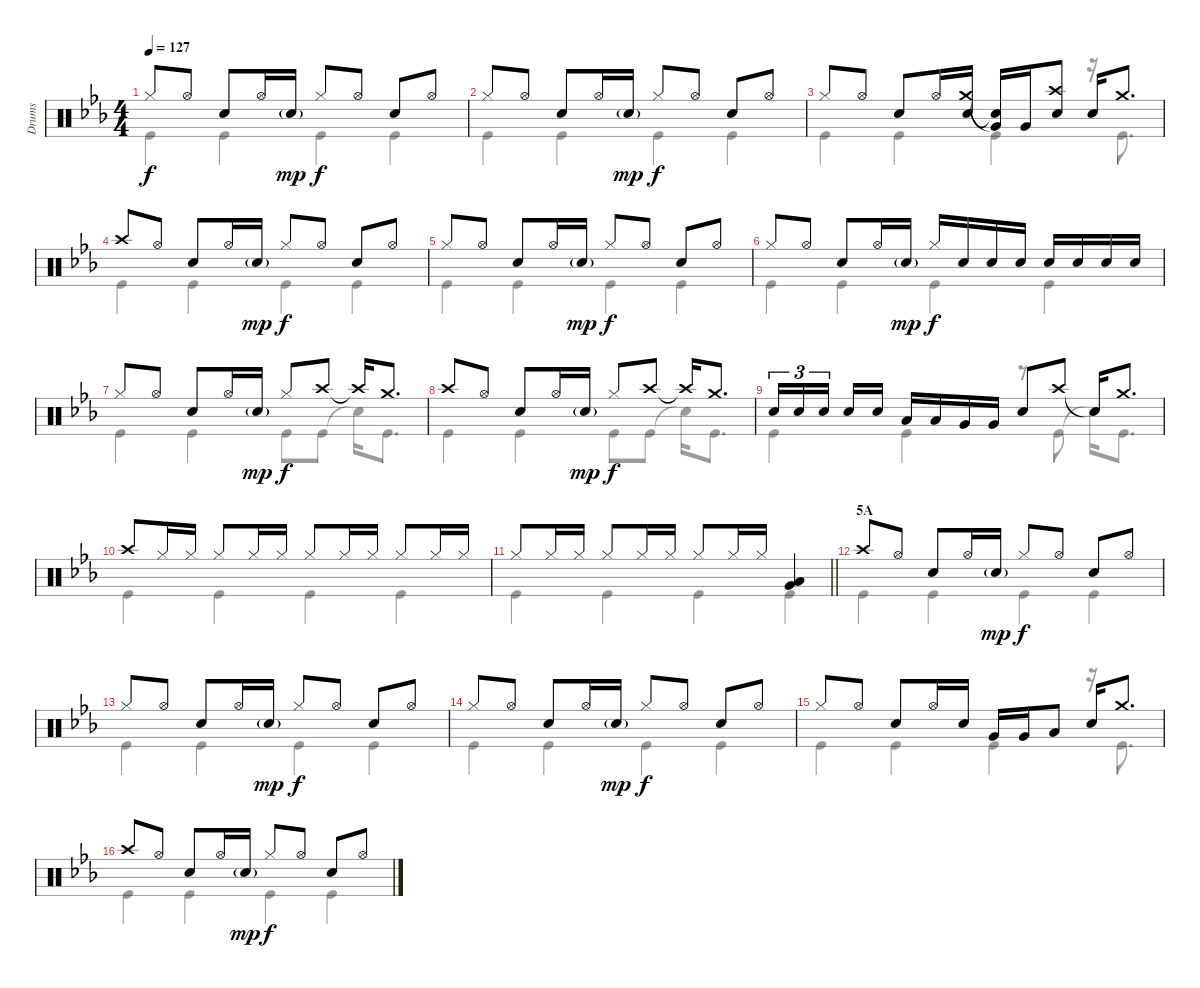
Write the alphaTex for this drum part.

\track ("Drums" "Drums") {instrument percussion}
\staff {score}
\articulation defaults
\voice
\ts (4 4)
\tempo 127
\clef neutral
\ks eb "Hi-Hat (closed)".8{dy f} "Hi-Hat (open)".8 "Snare (hit) 2".8 "Hi-Hat (open)".16 "Snare (hit) 2"{g}.16{dy mp} "Hi-Hat (closed)".8{dy f} "Hi-Hat (open)".8 "Snare (hit) 2".8 "Hi-Hat (open)".8
|
"Hi-Hat (closed)".8 "Hi-Hat (open)".8 "Snare (hit) 2".8 "Hi-Hat (open)".16 "Snare (hit) 2"{g}.16{dy mp} "Hi-Hat (closed)".8{dy f} "Hi-Hat (open)".8 "Snare (hit) 2".8 "Hi-Hat (open)".8 |
"Hi-Hat (closed)".8 "Hi-Hat (open)".8 "Snare (hit) 2".8 "Hi-Hat (open)".16 ("Crash medium (hit)" "Snare (hit) 2").16 ("Very Low Tom (hit)"{t} "Snare (hit)"{t}).16 "Very Low Tom (hit)".16 ("Crash high (hit)" "Snare (hit) 2").8 "Snare (hit) 2".16 "Crash medium (hit)".8{d} |
"Crash high (hit)".8 "Hi-Hat (open)".8 "Snare (hit) 2".8 "Hi-Hat (open)".16 "Snare (hit) 2"{g}.16{dy mp} "Hi-Hat (closed)".8{dy f} "Hi-Hat (open)".8 "Snare (hit) 2".8 "Hi-Hat (open)".8 |
"Hi-Hat (closed)".8 "Hi-Hat (open)".8 "Snare (hit) 2".8 "Hi-Hat (open)".16 "Snare (hit) 2"{g}.16{dy mp} "Hi-Hat (closed)".8{dy f} "Hi-Hat (open)".8 "Snare (hit) 2".8 "Hi-Hat (open)".8 |
"Hi-Hat (closed)".8 "Hi-Hat (open)".8 "Snare (hit) 2".8 "Hi-Hat (open)".16 "Snare (hit) 2"{g}.16{dy mp} "Hi-Hat (closed)".16{dy f} "Snare (hit) 2".16 "Snare (hit) 2".16 "Snare (hit) 2".16 "Snare (hit) 2".16 "Snare (hit) 2".16 "Snare (hit) 2".16 "Snare (hit) 2".16 |
"Hi-Hat (closed)".8 "Hi-Hat (open)".8 "Snare (hit) 2".8 "Hi-Hat (open)".16 "Snare (hit) 2"{g}.16{dy mp} "Hi-Hat (closed)".8{dy f} "Crash high (hit)".8 "Crash high (hit)"{t}.16 "Crash medium (hit)".8{d} |
"Crash high (hit)".8 "Hi-Hat (open)".8 "Snare (hit) 2".8 "Hi-Hat (open)".16 "Snare (hit) 2"{g}.16{dy mp} "Hi-Hat (closed)".8{dy f} "Crash high (hit)".8 "Crash high (hit)"{t}.16 "Crash medium (hit)".8{d} |
"Snare (hit) 2".16{tu (3 2)} "Snare (hit) 2".16{tu (3 2)} "Snare (hit) 2".16{tu (3 2) beam splitsecondary} "Snare (hit) 2".16 "Snare (hit) 2".16 "Low Tom (hit)".16 "Low Tom (hit)".16 "Very Low Tom (hit)".16 "Very Low Tom (hit)".16 "Snare (hit) 2".8 "Crash high (hit)".8 "Snare (hit)"{t}.16 "Crash medium (hit)".8{d} |
"Crash high (hit)".8 "Hi-Hat (closed)".16 "Hi-Hat (closed)".16 "Hi-Hat (closed)".8 "Hi-Hat (closed)".16 "Hi-Hat (closed)".16 "Hi-Hat (closed)".8 "Hi-Hat (closed)".16 "Hi-Hat (closed)".16 "Hi-Hat (closed)".8 "Hi-Hat (closed)".16 "Hi-Hat (closed)".16 |
\barLineRight lightlight "Hi-Hat (closed)".8 "Hi-Hat (closed)".16 "Hi-Hat (closed)".16 "Hi-Hat (closed)".8 "Hi-Hat (closed)".16 "Hi-Hat (closed)".16 "Hi-Hat (closed)".8 "Hi-Hat (closed)".16 "Hi-Hat (closed)".16
("Low Tom (hit)" "Very Low Tom (hit)").4 |
\section ("" "5A")
"Crash high (hit)".8 "Hi-Hat (open)".8 "Snare (hit) 2".8 "Hi-Hat (open)".16 "Snare (hit) 2"{g}.16{dy mp} "Hi-Hat (closed)".8{dy f} "Hi-Hat (open)".8 "Snare (hit) 2".8 "Hi-Hat (open)".8 |
"Hi-Hat (closed)".8 "Hi-Hat (open)".8 "Snare (hit) 2".8 "Hi-Hat (open)".16 "Snare (hit) 2"{g}.16{dy mp} "Hi-Hat (closed)".8{dy f} "Hi-Hat (open)".8 "Snare (hit) 2".8 "Hi-Hat (open)".8 |
"Hi-Hat (closed)".8 "Hi-Hat (open)".8 "Snare (hit) 2".8 "Hi-Hat (open)".16 "Snare (hit) 2"{g}.16{dy mp} "Hi-Hat (closed)".8{dy f} "Hi-Hat (open)".8 "Snare (hit) 2".8 "Hi-Hat (open)".8 |
"Hi-Hat (closed)".8 "Hi-Hat (open)".8 "Snare (hit) 2".8 "Hi-Hat (open)".16 "Snare (hit) 2".16 "Very Low Tom (hit)".16 "Very Low Tom (hit)".16 "Low Tom (hit)".8 "Snare (hit) 2".16 "Crash medium (hit)".8{d} |
"Crash high (hit)".8 "Hi-Hat (open)".8 "Snare (hit) 2".8 "Hi-Hat (open)".16 "Snare (hit) 2"{g}.16{dy mp} "Hi-Hat (closed)".8{dy f} "Hi-Hat (open)".8 "Snare (hit) 2".8 "Hi-Hat (open)".8
\voice
\clef neutral
\ottava regular
\simile none
\ks eb "Kick (hit)".4{dy f} "Kick (hit)".4 "Kick (hit)".4 "Kick (hit)".4
|
"Kick (hit)".4 "Kick (hit)".4 "Kick (hit)".4 "Kick (hit)".4 |
"Kick (hit)".4 "Kick (hit)".4 "Kick (hit)".4 r.16 "Kick (hit)".8{d} |
"Kick (hit)".4 "Kick (hit)".4 "Kick (hit)".4 "Kick (hit)".4 |
"Kick (hit)".4 "Kick (hit)".4 "Kick (hit)".4 "Kick (hit)".4 |
"Kick (hit)".4 "Kick (hit)".4 "Kick (hit)".4 "Kick (hit)".4 |
"Kick (hit)".4 "Kick (hit)".4 "Kick (hit)".8 "Kick (hit)".8 "Snare (hit)"{t}.16 "Kick (hit)".8{d} |
"Kick (hit)".4 "Kick (hit)".4 "Kick (hit)".8 "Kick (hit)".8 "Snare (hit)"{t}.16 "Kick (hit)".8{d} |
"Kick (hit)".4 "Kick (hit)".4 r.8 "Kick (hit)".8 "Snare (hit)"{t}.16 "Kick (hit)".8{d} |
"Kick (hit)".4 "Kick (hit)".4 "Kick (hit)".4 "Kick (hit)".4 |
\barLineRight lightlight "Kick (hit)".4 "Kick (hit)".4 "Kick (hit)".4 "Kick (hit)".4
|
"Kick (hit)".4 "Kick (hit)".4 "Kick (hit)".4 "Kick (hit)".4 |
"Kick (hit)".4 "Kick (hit)".4 "Kick (hit)".4 "Kick (hit)".4 |
"Kick (hit)".4 "Kick (hit)".4 "Kick (hit)".4 "Kick (hit)".4 |
"Kick (hit)".4 "Kick (hit)".4 "Kick (hit)".4 r.16 "Kick (hit)".8{d} |
"Kick (hit)".4 "Kick (hit)".4 "Kick (hit)".4 "Kick (hit)".4
